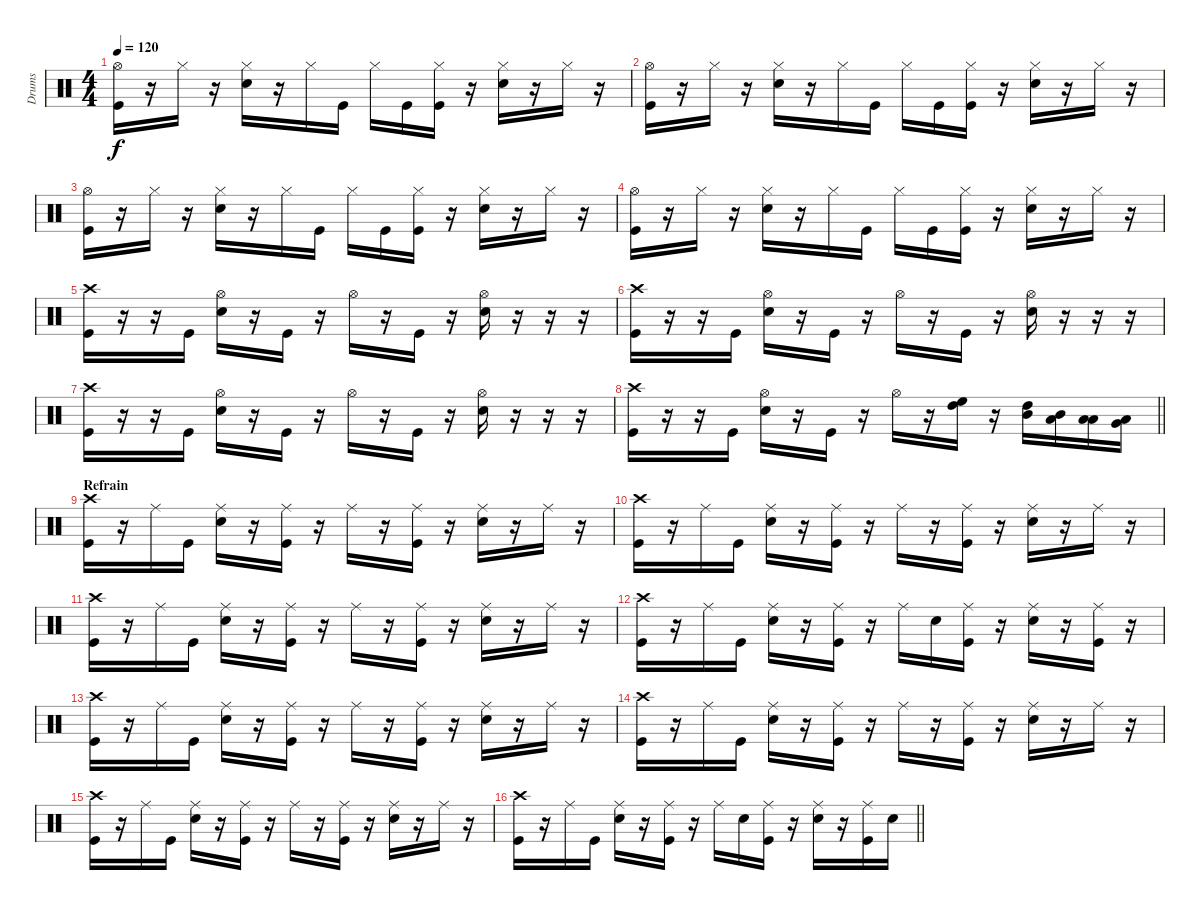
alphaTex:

\track ("Drums" "Drums") {instrument percussion}
\staff {score}
\articulation defaults
\ts (4 4)
\tempo 120
\clef neutral
\ks c
("Hi-Hat (open)" "Kick (hit)").16{dy f} r.16 "Hi-Hat (closed)".16 r.16 ("Hi-Hat (closed)" "Snare (hit) 2").16 r.16 "Hi-Hat (closed)".16 "Kick (hit)".16 "Hi-Hat (closed)".16 "Kick (hit)".16 ("Hi-Hat (closed)" "Kick (hit)").16 r.16 ("Hi-Hat (closed)" "Snare (hit) 2").16 r.16 "Hi-Hat (closed)".16 r.16 |
("Hi-Hat (open)" "Kick (hit)").16 r.16 "Hi-Hat (closed)".16 r.16 ("Hi-Hat (closed)" "Snare (hit) 2").16 r.16 "Hi-Hat (closed)".16 "Kick (hit)".16 "Hi-Hat (closed)".16 "Kick (hit)".16 ("Hi-Hat (closed)" "Kick (hit)").16 r.16 ("Hi-Hat (closed)" "Snare (hit) 2").16 r.16 "Hi-Hat (closed)".16 r.16 |
("Hi-Hat (open)" "Kick (hit)").16 r.16 "Hi-Hat (closed)".16 r.16 ("Hi-Hat (closed)" "Snare (hit) 2").16 r.16 "Hi-Hat (closed)".16 "Kick (hit)".16 "Hi-Hat (closed)".16 "Kick (hit)".16 ("Hi-Hat (closed)" "Kick (hit)").16 r.16 ("Hi-Hat (closed)" "Snare (hit) 2").16 r.16 "Hi-Hat (closed)".16 r.16 |
("Hi-Hat (open)" "Kick (hit)").16 r.16 "Hi-Hat (closed)".16 r.16 ("Hi-Hat (closed)" "Snare (hit) 2").16 r.16 "Hi-Hat (closed)".16 "Kick (hit)".16 "Hi-Hat (closed)".16 "Kick (hit)".16 ("Hi-Hat (closed)" "Kick (hit)").16 r.16 ("Hi-Hat (closed)" "Snare (hit) 2").16 r.16 "Hi-Hat (closed)".16 r.16 |
("Crash high (hit)" "Kick (hit)").16 r.16 r.16 "Kick (hit)".16 ("Snare (hit) 2" "Hi-Hat (open)").16 r.16 "Kick (hit)".16 r.16 "Hi-Hat (open)".16 r.16 "Kick (hit)".16 r.16 ("Snare (hit) 2" "Hi-Hat (open)").16 r.16 r.16 r.16 |
("Crash high (hit)" "Kick (hit)").16 r.16 r.16 "Kick (hit)".16 ("Snare (hit) 2" "Hi-Hat (open)").16 r.16 "Kick (hit)".16 r.16 "Hi-Hat (open)".16 r.16 "Kick (hit)".16 r.16 ("Snare (hit) 2" "Hi-Hat (open)").16 r.16 r.16 r.16 |
("Crash high (hit)" "Kick (hit)").16 r.16 r.16 "Kick (hit)".16 ("Snare (hit) 2" "Hi-Hat (open)").16 r.16 "Kick (hit)".16 r.16 "Hi-Hat (open)".16 r.16 "Kick (hit)".16 r.16 ("Snare (hit) 2" "Hi-Hat (open)").16 r.16 r.16 r.16 |
\barLineRight lightlight
("Crash high (hit)" "Kick (hit)").16 r.16 r.16 "Kick (hit)".16 ("Snare (hit) 2" "Hi-Hat (open)").16 r.16 "Kick (hit)".16 r.16 "Hi-Hat (open)".16 r.16 ("High Tom (hit)" "High Floor Tom (hit)").16 r.16 ("High Tom (hit)" "Mid Tom (hit)").16 ("Mid Tom (hit)" "Low Tom (hit)").16 ("Low Tom (hit)" "Low Tom (hit)").16 ("Low Tom (hit)" "Very Low Tom (hit)").16 |
\section ("" "Refrain")
("Crash high (hit)" "Kick (hit)").16 r.16 "Ride (middle)".16 "Kick (hit)".16 ("Snare (hit) 2" "Ride (middle)").16 r.16 ("Kick (hit)" "Ride (middle)").16 r.16 "Ride (middle)".16 r.16 ("Kick (hit)" "Ride (middle)").16 r.16 ("Snare (hit) 2" "Ride (middle)").16 r.16 "Ride (middle)".16 r.16 |
("Crash high (hit)" "Kick (hit)").16 r.16 "Ride (middle)".16 "Kick (hit)".16 ("Snare (hit) 2" "Ride (middle)").16 r.16 ("Kick (hit)" "Ride (middle)").16 r.16 "Ride (middle)".16 r.16 ("Kick (hit)" "Ride (middle)").16 r.16 ("Snare (hit) 2" "Ride (middle)").16 r.16 "Ride (middle)".16 r.16 |
("Crash high (hit)" "Kick (hit)").16 r.16 "Ride (middle)".16 "Kick (hit)".16 ("Snare (hit) 2" "Ride (middle)").16 r.16 ("Kick (hit)" "Ride (middle)").16 r.16 "Ride (middle)".16 r.16 ("Kick (hit)" "Ride (middle)").16 r.16 ("Snare (hit) 2" "Ride (middle)").16 r.16 "Ride (middle)".16 r.16 |
("Crash high (hit)" "Kick (hit)").16 r.16 "Ride (middle)".16 "Kick (hit)".16 ("Snare (hit) 2" "Ride (middle)").16 r.16 ("Kick (hit)" "Ride (middle)").16 r.16 "Ride (middle)".16 "Snare (hit) 2".16 ("Kick (hit)" "Ride (middle)").16 r.16 ("Snare (hit) 2" "Ride (middle)").16 r.16 ("Ride (middle)" "Kick (hit)").16 r.16 |
("Crash high (hit)" "Kick (hit)").16 r.16 "Ride (middle)".16 "Kick (hit)".16 ("Snare (hit) 2" "Ride (middle)").16 r.16 ("Kick (hit)" "Ride (middle)").16 r.16 "Ride (middle)".16 r.16 ("Kick (hit)" "Ride (middle)").16 r.16 ("Snare (hit) 2" "Ride (middle)").16 r.16 "Ride (middle)".16 r.16 |
("Crash high (hit)" "Kick (hit)").16 r.16 "Ride (middle)".16 "Kick (hit)".16 ("Snare (hit) 2" "Ride (middle)").16 r.16 ("Kick (hit)" "Ride (middle)").16 r.16 "Ride (middle)".16 r.16 ("Kick (hit)" "Ride (middle)").16 r.16 ("Snare (hit) 2" "Ride (middle)").16 r.16 "Ride (middle)".16 r.16 |
("Crash high (hit)" "Kick (hit)").16 r.16 "Ride (middle)".16 "Kick (hit)".16 ("Snare (hit) 2" "Ride (middle)").16 r.16 ("Kick (hit)" "Ride (middle)").16 r.16 "Ride (middle)".16 r.16 ("Kick (hit)" "Ride (middle)").16 r.16 ("Snare (hit) 2" "Ride (middle)").16 r.16 "Ride (middle)".16 r.16 |
\barLineRight lightlight
("Crash high (hit)" "Kick (hit)").16 r.16 "Ride (middle)".16 "Kick (hit)".16 ("Snare (hit) 2" "Ride (middle)").16 r.16 ("Kick (hit)" "Ride (middle)").16 r.16 "Ride (middle)".16 "Snare (hit) 2".16 ("Kick (hit)" "Ride (middle)").16 r.16 ("Snare (hit) 2" "Ride (middle)").16 r.16 ("Ride (middle)" "Kick (hit)").16 "Snare (hit) 2".16
